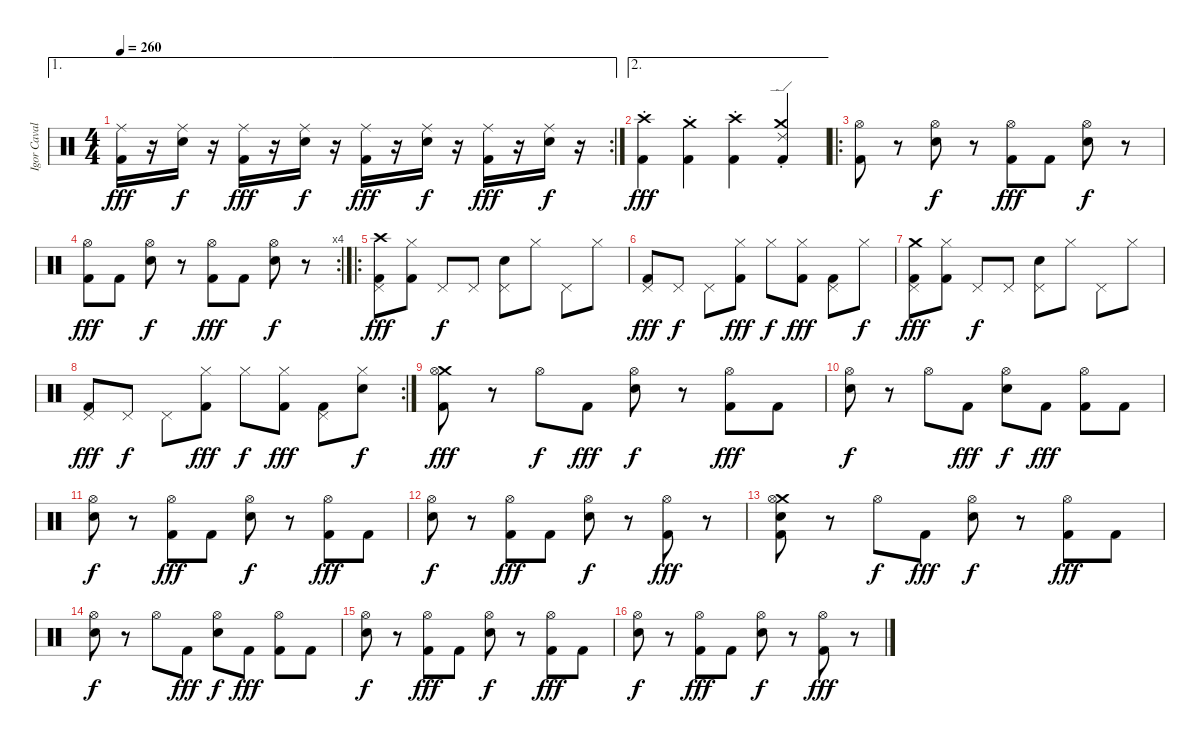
\track ("Igor Cavalera" "Igor Caval") {instrument percussion}
\staff {score}
\articulation defaults
\ae 1
\rc 2
\ts (4 4)
\tempo 260
\clef neutral
\ks c
("Ride (middle)" "Kick (hit) 2").16{dy fff} r.16 ("Electric Snare (hit)" "Ride (middle)").16{dy f} r.16 ("Ride (middle)" "Kick (hit) 2").16{dy fff} r.16 ("Electric Snare (hit)" "Ride (middle)").16{dy f} r.16 ("Ride (middle)" "Kick (hit) 2").16{dy fff} r.16 ("Electric Snare (hit)" "Ride (middle)").16{dy f} r.16 ("Ride (middle)" "Kick (hit) 2").16{dy fff} r.16 ("Electric Snare (hit)" "Ride (middle)").16{dy f} r.16 |
\ae 2
("Crash high (hit)"{st} "Kick (hit) 2").4{dy fff} ("Crash medium (hit)"{st} "Kick (hit) 2").4 ("Crash high (hit)"{st} "Kick (hit) 2").4 ("Ride (edge) 2"{st} "Crash medium (hit)"{st} "Kick (hit) 2").4 |
\ro
("Hi-Hat (open)" "Kick (hit) 2").8 r.8 ("Electric Snare (hit)" "Hi-Hat (open)").8{dy f} r.8 ("Hi-Hat (open)" "Kick (hit) 2").8{dy fff} "Kick (hit) 2".8 ("Electric Snare (hit)" "Hi-Hat (open)").8{dy f} r.8 |
\rc 4
("Hi-Hat (open)" "Kick (hit) 2").8{dy fff} "Kick (hit) 2".8 ("Electric Snare (hit)" "Hi-Hat (open)").8{dy f} r.8 ("Hi-Hat (open)" "Kick (hit) 2").8{dy fff} "Kick (hit) 2".8 ("Electric Snare (hit)" "Hi-Hat (open)").8{dy f} r.8 |
\ro
("Crash high (hit)" "Pedal Hi-Hat (hit)" "Kick (hit) 2").8{dy fff} ("Hi-Hat (closed)" "Kick (hit) 2").8 "Pedal Hi-Hat (hit)".8{dy f} "Pedal Hi-Hat (hit)".8 ("Electric Snare (hit)" "Pedal Hi-Hat (hit)").8 "Hi-Hat (closed)".8 "Pedal Hi-Hat (hit)".8 "Hi-Hat (closed)".8 |
("Pedal Hi-Hat (hit)" "Kick (hit) 2").8{dy fff} "Pedal Hi-Hat (hit)".8{dy f} "Pedal Hi-Hat (hit)".8 ("Hi-Hat (closed)" "Kick (hit) 2").8{dy fff} "Hi-Hat (closed)".8{dy f} ("Hi-Hat (closed)" "Kick (hit) 2").8{dy fff} ("Pedal Hi-Hat (hit)" "Kick (hit) 2").8 "Hi-Hat (closed)".8{dy f} |
("Crash medium (hit)" "Pedal Hi-Hat (hit)" "Kick (hit) 2").8{dy fff} ("Hi-Hat (closed)" "Kick (hit) 2").8 "Pedal Hi-Hat (hit)".8{dy f} "Pedal Hi-Hat (hit)".8 ("Electric Snare (hit)" "Pedal Hi-Hat (hit)").8 "Hi-Hat (closed)".8 "Pedal Hi-Hat (hit)".8 "Hi-Hat (closed)".8 |
\rc 2
("Pedal Hi-Hat (hit)" "Kick (hit) 2").8{dy fff} "Pedal Hi-Hat (hit)".8{dy f} "Pedal Hi-Hat (hit)".8 ("Hi-Hat (closed)" "Kick (hit) 2").8{dy fff} "Hi-Hat (closed)".8{dy f} ("Hi-Hat (closed)" "Kick (hit) 2").8{dy fff} ("Pedal Hi-Hat (hit)" "Kick (hit) 2").8 ("Electric Snare (hit)" "Hi-Hat (closed)").8{dy f} |
("Crash medium (hit)" "Hi-Hat (open)" "Kick (hit) 2").8{dy fff} r.8 "Hi-Hat (open)".8{dy f} "Kick (hit) 2".8{dy fff} ("Electric Snare (hit)" "Hi-Hat (open)").8{dy f} r.8 ("Hi-Hat (open)" "Kick (hit) 2").8{dy fff} "Kick (hit) 2".8 |
("Electric Snare (hit)" "Hi-Hat (open)").8{dy f} r.8 "Hi-Hat (open)".8 "Kick (hit) 2".8{dy fff} ("Electric Snare (hit)" "Hi-Hat (open)").8{dy f} "Kick (hit) 2".8{dy fff} ("Hi-Hat (open)" "Kick (hit) 2").8 "Kick (hit) 2".8 |
("Electric Snare (hit)" "Hi-Hat (open)").8{dy f} r.8 ("Hi-Hat (open)" "Kick (hit) 2").8{dy fff} "Kick (hit) 2".8 ("Electric Snare (hit)" "Hi-Hat (open)").8{dy f} r.8 ("Hi-Hat (open)" "Kick (hit) 2").8{dy fff} "Kick (hit) 2".8 |
("Electric Snare (hit)" "Hi-Hat (open)").8{dy f} r.8 ("Hi-Hat (open)" "Kick (hit) 2").8{dy fff} "Kick (hit) 2".8 ("Electric Snare (hit)" "Hi-Hat (open)").8{dy f} r.8 ("Hi-Hat (open)" "Kick (hit) 2").8{dy fff} r.8 |
("Crash medium (hit)" "Electric Snare (hit)" "Hi-Hat (open)" "Kick (hit) 2").8 r.8 "Hi-Hat (open)".8{dy f} "Kick (hit) 2".8{dy fff} ("Electric Snare (hit)" "Hi-Hat (open)").8{dy f} r.8 ("Hi-Hat (open)" "Kick (hit) 2").8{dy fff} "Kick (hit) 2".8 |
("Electric Snare (hit)" "Hi-Hat (open)").8{dy f} r.8 "Hi-Hat (open)".8 "Kick (hit) 2".8{dy fff} ("Electric Snare (hit)" "Hi-Hat (open)").8{dy f} "Kick (hit) 2".8{dy fff} ("Hi-Hat (open)" "Kick (hit) 2").8 "Kick (hit) 2".8 |
("Electric Snare (hit)" "Hi-Hat (open)").8{dy f} r.8 ("Hi-Hat (open)" "Kick (hit) 2").8{dy fff} "Kick (hit) 2".8 ("Electric Snare (hit)" "Hi-Hat (open)").8{dy f} r.8 ("Hi-Hat (open)" "Kick (hit) 2").8{dy fff} "Kick (hit) 2".8 |
("Electric Snare (hit)" "Hi-Hat (open)").8{dy f} r.8 ("Hi-Hat (open)" "Kick (hit) 2").8{dy fff} "Kick (hit) 2".8 ("Electric Snare (hit)" "Hi-Hat (open)").8{dy f} r.8 ("Hi-Hat (open)" "Kick (hit) 2").8{dy fff} r.8
